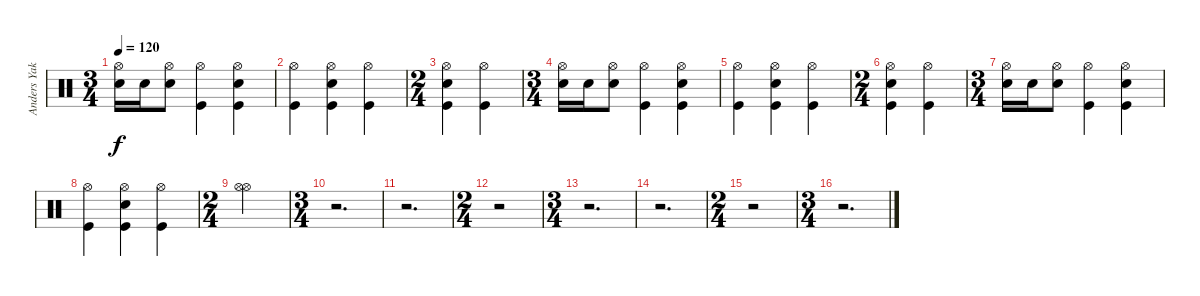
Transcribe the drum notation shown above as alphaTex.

\track ("Anders Yakobson" "Anders Yak") {instrument percussion}
\staff {score}
\articulation defaults
\ts (3 4)
\tempo 120
\clef neutral
\ks c
("Hi-Hat (open)" "Snare (hit) 2").16{dy f} "Snare (hit) 2".16 ("Hi-Hat (open)" "Snare (hit) 2").8 ("Hi-Hat (open)" "Kick (hit)").4 ("Snare (hit) 2" "Kick (hit)" "Hi-Hat (open)").4 |
("Hi-Hat (open)" "Kick (hit)").4 ("Hi-Hat (open)" "Snare (hit) 2" "Kick (hit)").4 ("Hi-Hat (open)" "Kick (hit)").4 |
\ts (2 4)
("Hi-Hat (open)" "Snare (hit) 2" "Kick (hit)").4 ("Hi-Hat (open)" "Kick (hit)").4 |
\ts (3 4)
("Hi-Hat (open)" "Snare (hit) 2").16 "Snare (hit) 2".16 ("Hi-Hat (open)" "Snare (hit) 2").8 ("Hi-Hat (open)" "Kick (hit)").4 ("Snare (hit) 2" "Kick (hit)" "Hi-Hat (open)").4 |
("Hi-Hat (open)" "Kick (hit)").4 ("Hi-Hat (open)" "Snare (hit) 2" "Kick (hit)").4 ("Hi-Hat (open)" "Kick (hit)").4 |
\ts (2 4)
("Hi-Hat (open)" "Snare (hit) 2" "Kick (hit)").4 ("Hi-Hat (open)" "Kick (hit)").4 |
\ts (3 4)
("Hi-Hat (open)" "Snare (hit) 2").16 "Snare (hit) 2".16 ("Hi-Hat (open)" "Snare (hit) 2").8 ("Hi-Hat (open)" "Kick (hit)").4 ("Snare (hit) 2" "Kick (hit)" "Hi-Hat (open)").4 |
("Hi-Hat (open)" "Kick (hit)").4 ("Hi-Hat (open)" "Snare (hit) 2" "Kick (hit)").4 ("Hi-Hat (open)" "Kick (hit)").4 |
\ts (2 4)
("Hi-Hat (open)" "Hi-Hat (open)").2 |
\ts (3 4)
r.2{d} |
r.2{d} |
\ts (2 4)
r.2 |
\ts (3 4)
r.2{d} |
r.2{d} |
\ts (2 4)
r.2 |
\ts (3 4)
r.2{d}
